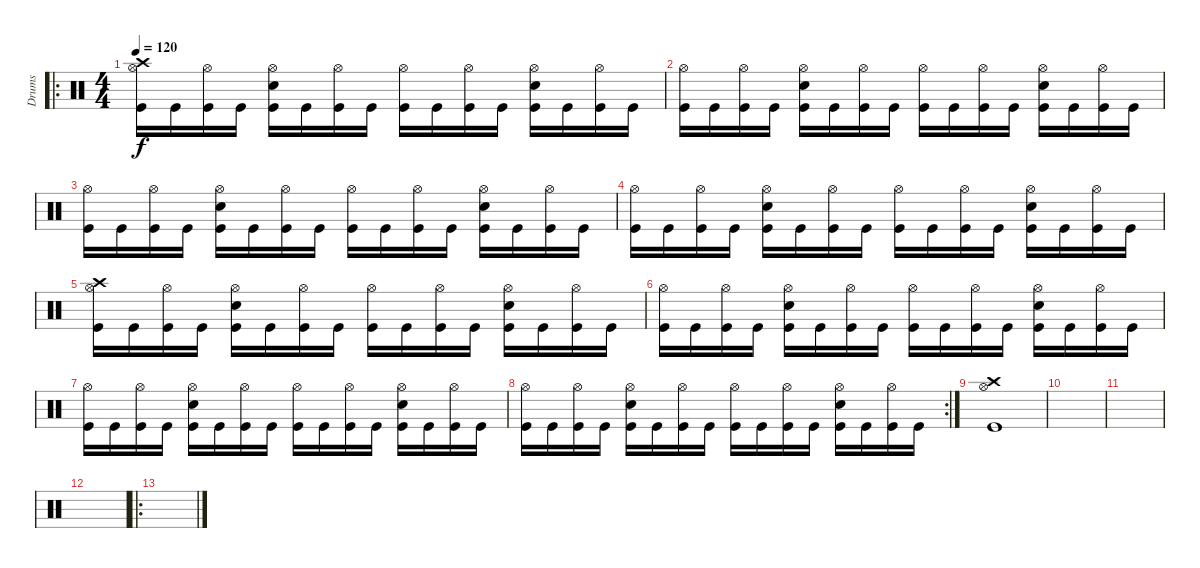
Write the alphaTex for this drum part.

\track ("Drums" "Drums") {instrument percussion}
\staff {score}
\articulation defaults
\ro
\ts (4 4)
\tempo 120
\clef neutral
\ks c
("Hi-Hat (open)" "Crash high (hit)" "Kick (hit)").16{dy f} "Kick (hit)".16 ("Hi-Hat (open)" "Kick (hit)").16 "Kick (hit)".16 ("Hi-Hat (open)" "Electric Snare (hit)" "Kick (hit)").16 "Kick (hit)".16 ("Hi-Hat (open)" "Kick (hit)").16 "Kick (hit)".16 ("Hi-Hat (open)" "Kick (hit)").16 "Kick (hit)".16 ("Hi-Hat (open)" "Kick (hit)").16 "Kick (hit)".16 ("Hi-Hat (open)" "Electric Snare (hit)" "Kick (hit)").16 "Kick (hit)".16 ("Hi-Hat (open)" "Kick (hit)").16 "Kick (hit)".16 |
("Hi-Hat (open)" "Kick (hit)").16 "Kick (hit)".16 ("Hi-Hat (open)" "Kick (hit)").16 "Kick (hit)".16 ("Hi-Hat (open)" "Electric Snare (hit)" "Kick (hit)").16 "Kick (hit)".16 ("Hi-Hat (open)" "Kick (hit)").16 "Kick (hit)".16 ("Hi-Hat (open)" "Kick (hit)").16 "Kick (hit)".16 ("Hi-Hat (open)" "Kick (hit)").16 "Kick (hit)".16 ("Hi-Hat (open)" "Electric Snare (hit)" "Kick (hit)").16 "Kick (hit)".16 ("Hi-Hat (open)" "Kick (hit)").16 "Kick (hit)".16 |
("Hi-Hat (open)" "Kick (hit)").16 "Kick (hit)".16 ("Hi-Hat (open)" "Kick (hit)").16 "Kick (hit)".16 ("Hi-Hat (open)" "Electric Snare (hit)" "Kick (hit)").16 "Kick (hit)".16 ("Hi-Hat (open)" "Kick (hit)").16 "Kick (hit)".16 ("Hi-Hat (open)" "Kick (hit)").16 "Kick (hit)".16 ("Hi-Hat (open)" "Kick (hit)").16 "Kick (hit)".16 ("Hi-Hat (open)" "Electric Snare (hit)" "Kick (hit)").16 "Kick (hit)".16 ("Hi-Hat (open)" "Kick (hit)").16 "Kick (hit)".16 |
("Hi-Hat (open)" "Kick (hit)").16 "Kick (hit)".16 ("Hi-Hat (open)" "Kick (hit)").16 "Kick (hit)".16 ("Hi-Hat (open)" "Electric Snare (hit)" "Kick (hit)").16 "Kick (hit)".16 ("Hi-Hat (open)" "Kick (hit)").16 "Kick (hit)".16 ("Hi-Hat (open)" "Kick (hit)").16 "Kick (hit)".16 ("Hi-Hat (open)" "Kick (hit)").16 "Kick (hit)".16 ("Hi-Hat (open)" "Electric Snare (hit)" "Kick (hit)").16 "Kick (hit)".16 ("Hi-Hat (open)" "Kick (hit)").16 "Kick (hit)".16 |
("Hi-Hat (open)" "Crash high (hit)" "Kick (hit)").16 "Kick (hit)".16 ("Hi-Hat (open)" "Kick (hit)").16 "Kick (hit)".16 ("Hi-Hat (open)" "Electric Snare (hit)" "Kick (hit)").16 "Kick (hit)".16 ("Hi-Hat (open)" "Kick (hit)").16 "Kick (hit)".16 ("Hi-Hat (open)" "Kick (hit)").16 "Kick (hit)".16 ("Hi-Hat (open)" "Kick (hit)").16 "Kick (hit)".16 ("Hi-Hat (open)" "Electric Snare (hit)" "Kick (hit)").16 "Kick (hit)".16 ("Hi-Hat (open)" "Kick (hit)").16 "Kick (hit)".16 |
("Hi-Hat (open)" "Kick (hit)").16 "Kick (hit)".16 ("Hi-Hat (open)" "Kick (hit)").16 "Kick (hit)".16 ("Hi-Hat (open)" "Electric Snare (hit)" "Kick (hit)").16 "Kick (hit)".16 ("Hi-Hat (open)" "Kick (hit)").16 "Kick (hit)".16 ("Hi-Hat (open)" "Kick (hit)").16 "Kick (hit)".16 ("Hi-Hat (open)" "Kick (hit)").16 "Kick (hit)".16 ("Hi-Hat (open)" "Electric Snare (hit)" "Kick (hit)").16 "Kick (hit)".16 ("Hi-Hat (open)" "Kick (hit)").16 "Kick (hit)".16 |
("Hi-Hat (open)" "Kick (hit)").16 "Kick (hit)".16 ("Hi-Hat (open)" "Kick (hit)").16 "Kick (hit)".16 ("Hi-Hat (open)" "Electric Snare (hit)" "Kick (hit)").16 "Kick (hit)".16 ("Hi-Hat (open)" "Kick (hit)").16 "Kick (hit)".16 ("Hi-Hat (open)" "Kick (hit)").16 "Kick (hit)".16 ("Hi-Hat (open)" "Kick (hit)").16 "Kick (hit)".16 ("Hi-Hat (open)" "Electric Snare (hit)" "Kick (hit)").16 "Kick (hit)".16 ("Hi-Hat (open)" "Kick (hit)").16 "Kick (hit)".16 |
\rc 2
("Hi-Hat (open)" "Kick (hit)").16 "Kick (hit)".16 ("Hi-Hat (open)" "Kick (hit)").16 "Kick (hit)".16 ("Hi-Hat (open)" "Electric Snare (hit)" "Kick (hit)").16 "Kick (hit)".16 ("Hi-Hat (open)" "Kick (hit)").16 "Kick (hit)".16 ("Hi-Hat (open)" "Kick (hit)").16 "Kick (hit)".16 ("Hi-Hat (open)" "Kick (hit)").16 "Kick (hit)".16 ("Hi-Hat (open)" "Electric Snare (hit)" "Kick (hit)").16 "Kick (hit)".16 ("Hi-Hat (open)" "Kick (hit)").16 "Kick (hit)".16 |
("Hi-Hat (open)" "Crash high (hit)" "Kick (hit)").1 |
|
|
|
\ro
